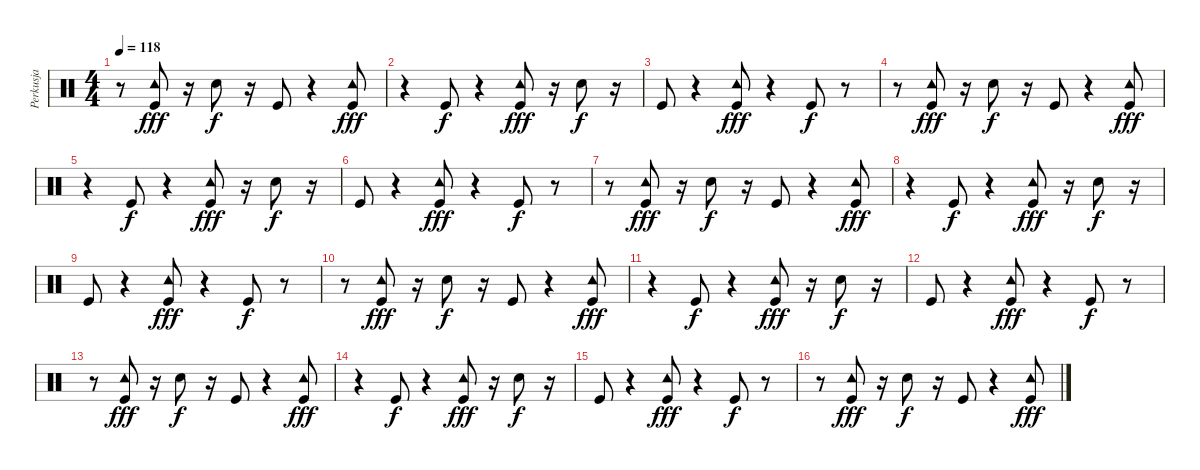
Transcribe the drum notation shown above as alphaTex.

\track ("Perkusja" "Perkusja") {instrument percussion}
\staff {score}
\articulation defaults
\ts (4 4)
\tempo 118
\clef neutral
\ks c
r.8{dy f} ("Kick (hit)" "Tambourine (hit)").8{dy fff} r.16 "Electric Snare (hit)".8{dy f} r.16 "Kick (hit)".8 r.4 ("Kick (hit)" "Tambourine (hit)").8{dy fff} |
r.4 "Kick (hit)".8{dy f} r.4 ("Kick (hit)" "Tambourine (hit)").8{dy fff} r.16 "Electric Snare (hit)".8{dy f} r.16 |
"Kick (hit)".8 r.4 ("Kick (hit)" "Tambourine (hit)").8{dy fff} r.4 "Kick (hit)".8{dy f} r.8 |
r.8 ("Kick (hit)" "Tambourine (hit)").8{dy fff} r.16 "Electric Snare (hit)".8{dy f} r.16 "Kick (hit)".8 r.4 ("Kick (hit)" "Tambourine (hit)").8{dy fff} |
r.4 "Kick (hit)".8{dy f} r.4 ("Kick (hit)" "Tambourine (hit)").8{dy fff} r.16 "Electric Snare (hit)".8{dy f} r.16 |
"Kick (hit)".8 r.4 ("Kick (hit)" "Tambourine (hit)").8{dy fff} r.4 "Kick (hit)".8{dy f} r.8 |
r.8 ("Kick (hit)" "Tambourine (hit)").8{dy fff} r.16 "Electric Snare (hit)".8{dy f} r.16 "Kick (hit)".8 r.4 ("Kick (hit)" "Tambourine (hit)").8{dy fff} |
r.4 "Kick (hit)".8{dy f} r.4 ("Kick (hit)" "Tambourine (hit)").8{dy fff} r.16 "Electric Snare (hit)".8{dy f} r.16 |
"Kick (hit)".8 r.4 ("Kick (hit)" "Tambourine (hit)").8{dy fff} r.4 "Kick (hit)".8{dy f} r.8 |
r.8 ("Kick (hit)" "Tambourine (hit)").8{dy fff} r.16 "Electric Snare (hit)".8{dy f} r.16 "Kick (hit)".8 r.4 ("Kick (hit)" "Tambourine (hit)").8{dy fff} |
r.4 "Kick (hit)".8{dy f} r.4 ("Kick (hit)" "Tambourine (hit)").8{dy fff} r.16 "Electric Snare (hit)".8{dy f} r.16 |
"Kick (hit)".8 r.4 ("Kick (hit)" "Tambourine (hit)").8{dy fff} r.4 "Kick (hit)".8{dy f} r.8 |
r.8 ("Kick (hit)" "Tambourine (hit)").8{dy fff} r.16 "Electric Snare (hit)".8{dy f} r.16 "Kick (hit)".8 r.4 ("Kick (hit)" "Tambourine (hit)").8{dy fff} |
r.4 "Kick (hit)".8{dy f} r.4 ("Kick (hit)" "Tambourine (hit)").8{dy fff} r.16 "Electric Snare (hit)".8{dy f} r.16 |
"Kick (hit)".8 r.4 ("Kick (hit)" "Tambourine (hit)").8{dy fff} r.4 "Kick (hit)".8{dy f} r.8 |
r.8 ("Kick (hit)" "Tambourine (hit)").8{dy fff} r.16 "Electric Snare (hit)".8{dy f} r.16 "Kick (hit)".8 r.4 ("Kick (hit)" "Tambourine (hit)").8{dy fff}
